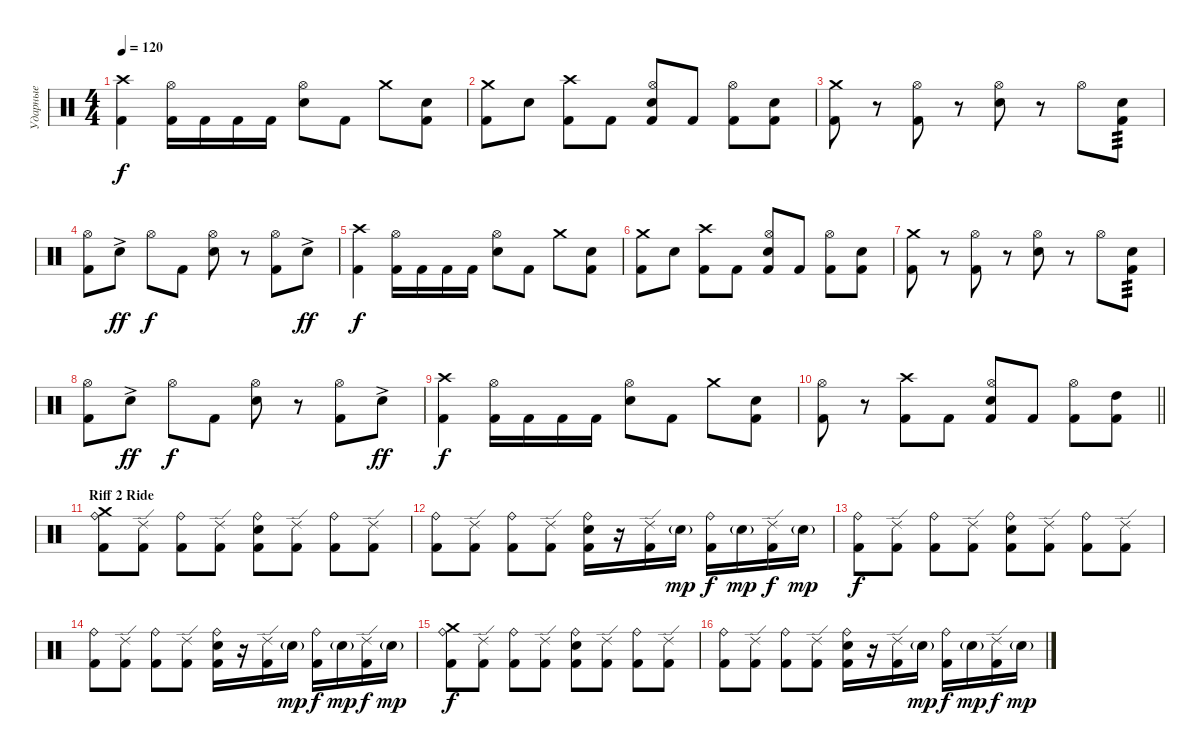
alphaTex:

\track ("Ударные" "Ударные") {instrument percussion}
\staff {score}
\articulation defaults
\ts (4 4)
\tempo 120
\clef neutral
\ks c
("Crash high (hit)" "Kick (hit) 2").4{dy f} ("Hi-Hat (open)" "Kick (hit) 2").16 "Kick (hit) 2".16 "Kick (hit) 2".16 "Kick (hit) 2".16 ("Hi-Hat (open)" "Electric Snare (hit)").8 "Kick (hit) 2".8 "Crash medium (hit)".8 ("Electric Snare (hit)" "Kick (hit) 2").8 |
("Crash medium (hit)" "Kick (hit) 2").8 "Electric Snare (hit)".8 ("Crash high (hit)" "Kick (hit) 2").8 "Kick (hit) 2".8 ("Hi-Hat (open)" "Electric Snare (hit)" "Kick (hit) 2").8 "Kick (hit) 2".8 ("Hi-Hat (open)" "Kick (hit) 2").8 ("Electric Snare (hit)" "Kick (hit) 2").8 |
("Crash medium (hit)" "Kick (hit) 2").8 r.8 ("Hi-Hat (open)" "Kick (hit) 2").8 r.8 ("Hi-Hat (open)" "Electric Snare (hit)").8 r.8 "Hi-Hat (open)".8 ("Electric Snare (hit)" "Kick (hit) 2").8{tp 3} |
("Hi-Hat (open)" "Kick (hit) 2").8 "Electric Snare (hit)"{ac}.8{dy ff} "Hi-Hat (open)".8{dy f} "Kick (hit) 2".8 ("Hi-Hat (open)" "Electric Snare (hit)").8 r.8 ("Hi-Hat (open)" "Kick (hit) 2").8 "Electric Snare (hit)"{ac}.8{dy ff} |
("Crash high (hit)" "Kick (hit) 2").4{dy f} ("Hi-Hat (open)" "Kick (hit) 2").16 "Kick (hit) 2".16 "Kick (hit) 2".16 "Kick (hit) 2".16 ("Hi-Hat (open)" "Electric Snare (hit)").8 "Kick (hit) 2".8 "Crash medium (hit)".8 ("Electric Snare (hit)" "Kick (hit) 2").8 |
("Crash medium (hit)" "Kick (hit) 2").8 "Electric Snare (hit)".8 ("Crash high (hit)" "Kick (hit) 2").8 "Kick (hit) 2".8 ("Hi-Hat (open)" "Electric Snare (hit)" "Kick (hit) 2").8 "Kick (hit) 2".8 ("Hi-Hat (open)" "Kick (hit) 2").8 ("Electric Snare (hit)" "Kick (hit) 2").8 |
("Crash medium (hit)" "Kick (hit) 2").8 r.8 ("Hi-Hat (open)" "Kick (hit) 2").8 r.8 ("Hi-Hat (open)" "Electric Snare (hit)").8 r.8 "Hi-Hat (open)".8 ("Electric Snare (hit)" "Kick (hit) 2").8{tp 3} |
("Hi-Hat (open)" "Kick (hit) 2").8 "Electric Snare (hit)"{ac}.8{dy ff} "Hi-Hat (open)".8{dy f} "Kick (hit) 2".8 ("Hi-Hat (open)" "Electric Snare (hit)").8 r.8 ("Hi-Hat (open)" "Kick (hit) 2").8 "Electric Snare (hit)"{ac}.8{dy ff} |
("Crash high (hit)" "Kick (hit) 2").4{dy f} ("Hi-Hat (open)" "Kick (hit) 2").16 "Kick (hit) 2".16 "Kick (hit) 2".16 "Kick (hit) 2".16 ("Hi-Hat (open)" "Electric Snare (hit)").8 "Kick (hit) 2".8 "Crash medium (hit)".8 ("Electric Snare (hit)" "Kick (hit) 2").8 |
\barLineRight lightlight
("Hi-Hat (open)" "Kick (hit) 2").8 r.8 ("Crash high (hit)" "Kick (hit) 2").8 "Kick (hit) 2".8 ("Hi-Hat (open)" "Electric Snare (hit)" "Kick (hit) 2").8 "Kick (hit) 2".8 ("Hi-Hat (open)" "Kick (hit) 2").8 ("High Tom (hit)" "Kick (hit) 2").8 |
\section ("" "Riff 2 Ride")
("Crash medium (hit)" "Ride (bell)" "Kick (hit) 2").8 ("Ride (edge) 2" "Kick (hit) 2").8 ("Ride (bell)" "Kick (hit) 2").8 ("Ride (edge) 2" "Kick (hit) 2").8 ("Ride (bell)" "Electric Snare (hit)" "Kick (hit) 2").8 ("Ride (edge) 2" "Kick (hit) 2").8 ("Ride (bell)" "Kick (hit) 2").8 ("Ride (edge) 2" "Kick (hit) 2").8 |
("Ride (bell)" "Kick (hit) 2").8 ("Ride (edge) 2" "Kick (hit) 2").8 ("Ride (bell)" "Kick (hit) 2").8 ("Ride (edge) 2" "Kick (hit) 2").8 ("Ride (bell)" "Electric Snare (hit)" "Kick (hit) 2").16 r.16 ("Ride (edge) 2" "Kick (hit) 2").16 "Electric Snare (hit)"{g}.16{dy mp} ("Ride (bell)" "Kick (hit) 2").16{dy f} "Electric Snare (hit)"{g}.16{dy mp} ("Ride (edge) 2" "Kick (hit) 2").16{dy f} "Electric Snare (hit)"{g}.16{dy mp} |
("Ride (bell)" "Kick (hit) 2").8{dy f} ("Ride (edge) 2" "Kick (hit) 2").8 ("Ride (bell)" "Kick (hit) 2").8 ("Ride (edge) 2" "Kick (hit) 2").8 ("Ride (bell)" "Electric Snare (hit)" "Kick (hit) 2").8 ("Ride (edge) 2" "Kick (hit) 2").8 ("Ride (bell)" "Kick (hit) 2").8 ("Ride (edge) 2" "Kick (hit) 2").8 |
("Ride (bell)" "Kick (hit) 2").8 ("Ride (edge) 2" "Kick (hit) 2").8 ("Ride (bell)" "Kick (hit) 2").8 ("Ride (edge) 2" "Kick (hit) 2").8 ("Ride (bell)" "Electric Snare (hit)" "Kick (hit) 2").16 r.16 ("Ride (edge) 2" "Kick (hit) 2").16 "Electric Snare (hit)"{g}.16{dy mp} ("Ride (bell)" "Kick (hit) 2").16{dy f} "Electric Snare (hit)"{g}.16{dy mp} ("Ride (edge) 2" "Kick (hit) 2").16{dy f} "Electric Snare (hit)"{g}.16{dy mp} |
("Crash medium (hit)" "Ride (bell)" "Kick (hit) 2").8{dy f} ("Ride (edge) 2" "Kick (hit) 2").8 ("Ride (bell)" "Kick (hit) 2").8 ("Ride (edge) 2" "Kick (hit) 2").8 ("Ride (bell)" "Electric Snare (hit)" "Kick (hit) 2").8 ("Ride (edge) 2" "Kick (hit) 2").8 ("Ride (bell)" "Kick (hit) 2").8 ("Ride (edge) 2" "Kick (hit) 2").8 |
("Ride (bell)" "Kick (hit) 2").8 ("Ride (edge) 2" "Kick (hit) 2").8 ("Ride (bell)" "Kick (hit) 2").8 ("Ride (edge) 2" "Kick (hit) 2").8 ("Ride (bell)" "Electric Snare (hit)" "Kick (hit) 2").16 r.16 ("Ride (edge) 2" "Kick (hit) 2").16 "Electric Snare (hit)"{g}.16{dy mp} ("Ride (bell)" "Kick (hit) 2").16{dy f} "Electric Snare (hit)"{g}.16{dy mp} ("Ride (edge) 2" "Kick (hit) 2").16{dy f} "Electric Snare (hit)"{g}.16{dy mp}
